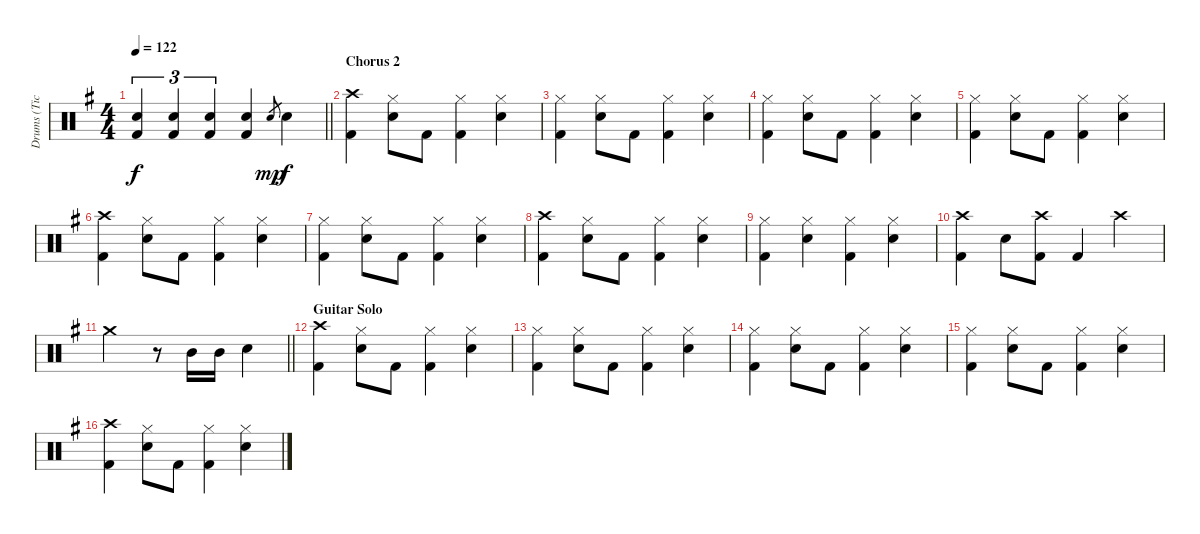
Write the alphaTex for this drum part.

\track ("Drums (Tico Torres)" "Drums (Tic") {instrument percussion}
\staff {score}
\articulation defaults
\ts (4 4)
\tempo 122
\clef neutral
\barLineRight lightlight
\ks eminor
("Snare (hit) 2" "Kick (hit) 2").4{tu (3 2) dy f} ("Snare (hit) 2" "Kick (hit) 2").4{tu (3 2)} ("Snare (hit) 2" "Kick (hit) 2").4{tu (3 2)} ("Snare (hit) 2" "Kick (hit) 2").4 "Snare (hit) 2".8{gr dy mp} "Snare (hit) 2".4{dy f} |
\section ("" "Chorus 2")
("Crash high (hit)" "Kick (hit) 2").4 ("Hi-Hat (closed)" "Snare (hit) 2").8 "Kick (hit) 2".8 ("Hi-Hat (closed)" "Kick (hit) 2").4 ("Hi-Hat (closed)" "Snare (hit) 2").4 |
("Hi-Hat (closed)" "Kick (hit) 2").4 ("Hi-Hat (closed)" "Snare (hit) 2").8 "Kick (hit) 2".8 ("Hi-Hat (closed)" "Kick (hit) 2").4 ("Hi-Hat (closed)" "Snare (hit) 2").4 |
("Hi-Hat (closed)" "Kick (hit) 2").4 ("Hi-Hat (closed)" "Snare (hit) 2").8 "Kick (hit) 2".8 ("Hi-Hat (closed)" "Kick (hit) 2").4 ("Hi-Hat (closed)" "Snare (hit) 2").4 |
("Hi-Hat (closed)" "Kick (hit) 2").4 ("Hi-Hat (closed)" "Snare (hit) 2").8 "Kick (hit) 2".8 ("Hi-Hat (closed)" "Kick (hit) 2").4 ("Hi-Hat (closed)" "Snare (hit) 2").4 |
("Crash high (hit)" "Kick (hit) 2").4 ("Hi-Hat (closed)" "Snare (hit) 2").8 "Kick (hit) 2".8 ("Hi-Hat (closed)" "Kick (hit) 2").4 ("Hi-Hat (closed)" "Snare (hit) 2").4 |
("Hi-Hat (closed)" "Kick (hit) 2").4 ("Hi-Hat (closed)" "Snare (hit) 2").8 "Kick (hit) 2".8 ("Hi-Hat (closed)" "Kick (hit) 2").4 ("Hi-Hat (closed)" "Snare (hit) 2").4 |
("Crash high (hit)" "Kick (hit) 2").4 ("Hi-Hat (closed)" "Snare (hit) 2").8 "Kick (hit) 2".8 ("Hi-Hat (closed)" "Kick (hit) 2").4 ("Hi-Hat (closed)" "Snare (hit) 2").4 |
("Hi-Hat (closed)" "Kick (hit) 2").4 ("Hi-Hat (closed)" "Snare (hit) 2").4 ("Hi-Hat (closed)" "Kick (hit) 2").4 ("Hi-Hat (closed)" "Snare (hit) 2").4 |
("Crash high (hit)" "Kick (hit) 2").4 "Snare (hit) 2".8 ("Crash high (hit)" "Kick (hit) 2").8 "Kick (hit) 2".4 "Crash high (hit)".4 |
\barLineRight lightlight "Crash medium (hit)".2
r.8 "Mid Tom (hit)".16 "Mid Tom (hit)".16 "Snare (hit) 2".4 |
\section ("" "Guitar Solo")
("Crash high (hit)" "Kick (hit) 2").4 ("Hi-Hat (closed)" "Snare (hit) 2").8 "Kick (hit) 2".8 ("Hi-Hat (closed)" "Kick (hit) 2").4 ("Hi-Hat (closed)" "Snare (hit) 2").4 |
("Hi-Hat (closed)" "Kick (hit) 2").4 ("Hi-Hat (closed)" "Snare (hit) 2").8 "Kick (hit) 2".8 ("Hi-Hat (closed)" "Kick (hit) 2").4 ("Hi-Hat (closed)" "Snare (hit) 2").4 |
("Hi-Hat (closed)" "Kick (hit) 2").4 ("Hi-Hat (closed)" "Snare (hit) 2").8 "Kick (hit) 2".8 ("Hi-Hat (closed)" "Kick (hit) 2").4 ("Hi-Hat (closed)" "Snare (hit) 2").4 |
("Hi-Hat (closed)" "Kick (hit) 2").4 ("Hi-Hat (closed)" "Snare (hit) 2").8 "Kick (hit) 2".8 ("Hi-Hat (closed)" "Kick (hit) 2").4 ("Hi-Hat (closed)" "Snare (hit) 2").4 |
("Crash high (hit)" "Kick (hit) 2").4 ("Hi-Hat (closed)" "Snare (hit) 2").8 "Kick (hit) 2".8 ("Hi-Hat (closed)" "Kick (hit) 2").4 ("Hi-Hat (closed)" "Snare (hit) 2").4
